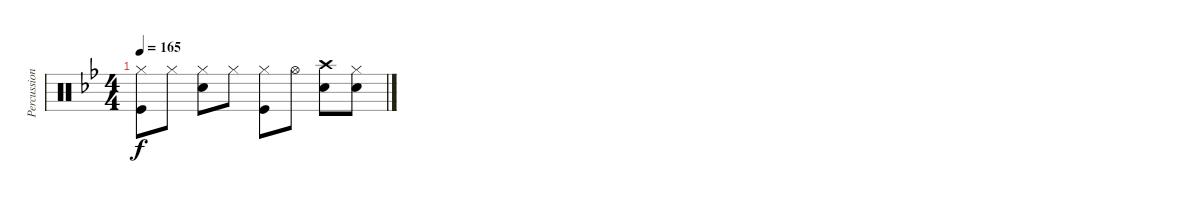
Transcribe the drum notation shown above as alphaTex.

\track ("Percussions" "Percussion") {instrument percussion}
\staff {score}
\articulation defaults
\ts (4 4)
\tempo 165
\clef neutral
\ks bb
("Hi-Hat (closed)" "Kick (hit)").8{dy f} "Hi-Hat (closed)".8 ("Hi-Hat (closed)" "Snare (hit) 2").8 "Hi-Hat (closed)".8 ("Hi-Hat (closed)" "Kick (hit)").8 "Hi-Hat (open)".8 ("Crash high (hit)" "Snare (hit) 2").8 ("Hi-Hat (closed)" "Snare (hit) 2").8
